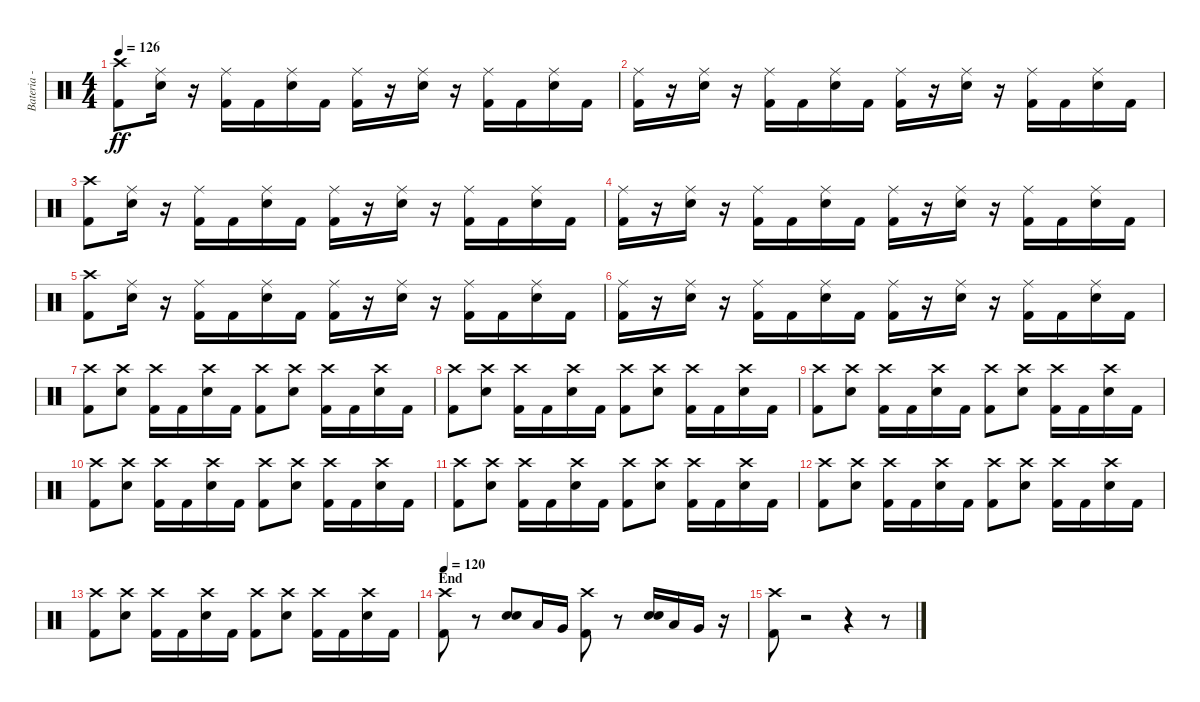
\track ("Bateria - Larzon" "Bateria - ") {instrument percussion}
\staff {score}
\articulation defaults
\ts (4 4)
\tempo 126
\clef neutral
\ks c
("Kick (hit) 2" "Crash high (hit)").8{dy ff} ("Electric Snare (hit)" "Ride (middle)").16 r.16 ("Kick (hit) 2" "Ride (middle)").16 "Kick (hit) 2".16 ("Electric Snare (hit)" "Ride (middle)").16 "Kick (hit) 2".16 ("Kick (hit) 2" "Ride (middle)").16 r.16 ("Electric Snare (hit)" "Ride (middle)").16 r.16 ("Kick (hit) 2" "Ride (middle)").16 "Kick (hit) 2".16 ("Electric Snare (hit)" "Ride (middle)").16 "Kick (hit) 2".16 |
("Kick (hit) 2" "Ride (middle)").16 r.16 ("Electric Snare (hit)" "Ride (middle)").16 r.16 ("Kick (hit) 2" "Ride (middle)").16 "Kick (hit) 2".16 ("Electric Snare (hit)" "Ride (middle)").16 "Kick (hit) 2".16 ("Kick (hit) 2" "Ride (middle)").16 r.16 ("Electric Snare (hit)" "Ride (middle)").16 r.16 ("Kick (hit) 2" "Ride (middle)").16 "Kick (hit) 2".16 ("Electric Snare (hit)" "Ride (middle)").16 "Kick (hit) 2".16 |
("Kick (hit) 2" "Crash high (hit)").8 ("Electric Snare (hit)" "Ride (middle)").16 r.16 ("Kick (hit) 2" "Ride (middle)").16 "Kick (hit) 2".16 ("Electric Snare (hit)" "Ride (middle)").16 "Kick (hit) 2".16 ("Kick (hit) 2" "Ride (middle)").16 r.16 ("Electric Snare (hit)" "Ride (middle)").16 r.16 ("Kick (hit) 2" "Ride (middle)").16 "Kick (hit) 2".16 ("Electric Snare (hit)" "Ride (middle)").16 "Kick (hit) 2".16 |
("Kick (hit) 2" "Ride (middle)").16 r.16 ("Electric Snare (hit)" "Ride (middle)").16 r.16 ("Kick (hit) 2" "Ride (middle)").16 "Kick (hit) 2".16 ("Electric Snare (hit)" "Ride (middle)").16 "Kick (hit) 2".16 ("Kick (hit) 2" "Ride (middle)").16 r.16 ("Electric Snare (hit)" "Ride (middle)").16 r.16 ("Kick (hit) 2" "Ride (middle)").16 "Kick (hit) 2".16 ("Electric Snare (hit)" "Ride (middle)").16 "Kick (hit) 2".16 |
("Kick (hit) 2" "Crash high (hit)").8 ("Electric Snare (hit)" "Ride (middle)").16 r.16 ("Kick (hit) 2" "Ride (middle)").16 "Kick (hit) 2".16 ("Electric Snare (hit)" "Ride (middle)").16 "Kick (hit) 2".16 ("Kick (hit) 2" "Ride (middle)").16 r.16 ("Electric Snare (hit)" "Ride (middle)").16 r.16 ("Kick (hit) 2" "Ride (middle)").16 "Kick (hit) 2".16 ("Electric Snare (hit)" "Ride (middle)").16 "Kick (hit) 2".16 |
("Kick (hit) 2" "Ride (middle)").16 r.16 ("Electric Snare (hit)" "Ride (middle)").16 r.16 ("Kick (hit) 2" "Ride (middle)").16 "Kick (hit) 2".16 ("Electric Snare (hit)" "Ride (middle)").16 "Kick (hit) 2".16 ("Kick (hit) 2" "Ride (middle)").16 r.16 ("Electric Snare (hit)" "Ride (middle)").16 r.16 ("Kick (hit) 2" "Ride (middle)").16 "Kick (hit) 2".16 ("Electric Snare (hit)" "Ride (middle)").16 "Kick (hit) 2".16 |
("Kick (hit) 2" "Crash high (hit)").8 ("Electric Snare (hit)" "Crash high (hit)").8 ("Kick (hit) 2" "Crash high (hit)").16 "Kick (hit) 2".16 ("Electric Snare (hit)" "Crash high (hit)").16 "Kick (hit) 2".16 ("Kick (hit) 2" "Crash high (hit)").8 ("Electric Snare (hit)" "Crash high (hit)").8 ("Kick (hit) 2" "Crash high (hit)").16 "Kick (hit) 2".16 ("Electric Snare (hit)" "Crash high (hit)").16 "Kick (hit) 2".16 |
("Kick (hit) 2" "Crash high (hit)").8 ("Electric Snare (hit)" "Crash high (hit)").8 ("Kick (hit) 2" "Crash high (hit)").16 "Kick (hit) 2".16 ("Electric Snare (hit)" "Crash high (hit)").16 "Kick (hit) 2".16 ("Kick (hit) 2" "Crash high (hit)").8 ("Electric Snare (hit)" "Crash high (hit)").8 ("Kick (hit) 2" "Crash high (hit)").16 "Kick (hit) 2".16 ("Electric Snare (hit)" "Crash high (hit)").16 "Kick (hit) 2".16 |
("Kick (hit) 2" "Crash high (hit)").8 ("Electric Snare (hit)" "Crash high (hit)").8 ("Kick (hit) 2" "Crash high (hit)").16 "Kick (hit) 2".16 ("Electric Snare (hit)" "Crash high (hit)").16 "Kick (hit) 2".16 ("Kick (hit) 2" "Crash high (hit)").8 ("Electric Snare (hit)" "Crash high (hit)").8 ("Kick (hit) 2" "Crash high (hit)").16 "Kick (hit) 2".16 ("Electric Snare (hit)" "Crash high (hit)").16 "Kick (hit) 2".16 |
("Kick (hit) 2" "Crash high (hit)").8 ("Electric Snare (hit)" "Crash high (hit)").8 ("Kick (hit) 2" "Crash high (hit)").16 "Kick (hit) 2".16 ("Electric Snare (hit)" "Crash high (hit)").16 "Kick (hit) 2".16 ("Kick (hit) 2" "Crash high (hit)").8 ("Electric Snare (hit)" "Crash high (hit)").8 ("Kick (hit) 2" "Crash high (hit)").16 "Kick (hit) 2".16 ("Electric Snare (hit)" "Crash high (hit)").16 "Kick (hit) 2".16 |
("Kick (hit) 2" "Crash high (hit)").8 ("Electric Snare (hit)" "Crash high (hit)").8 ("Kick (hit) 2" "Crash high (hit)").16 "Kick (hit) 2".16 ("Electric Snare (hit)" "Crash high (hit)").16 "Kick (hit) 2".16 ("Kick (hit) 2" "Crash high (hit)").8 ("Electric Snare (hit)" "Crash high (hit)").8 ("Kick (hit) 2" "Crash high (hit)").16 "Kick (hit) 2".16 ("Electric Snare (hit)" "Crash high (hit)").16 "Kick (hit) 2".16 |
("Kick (hit) 2" "Crash high (hit)").8 ("Electric Snare (hit)" "Crash high (hit)").8 ("Kick (hit) 2" "Crash high (hit)").16 "Kick (hit) 2".16 ("Electric Snare (hit)" "Crash high (hit)").16 "Kick (hit) 2".16 ("Kick (hit) 2" "Crash high (hit)").8 ("Electric Snare (hit)" "Crash high (hit)").8 ("Kick (hit) 2" "Crash high (hit)").16 "Kick (hit) 2".16 ("Electric Snare (hit)" "Crash high (hit)").16 "Kick (hit) 2".16 |
("Kick (hit) 2" "Crash high (hit)").8 ("Electric Snare (hit)" "Crash high (hit)").8 ("Kick (hit) 2" "Crash high (hit)").16 "Kick (hit) 2".16 ("Electric Snare (hit)" "Crash high (hit)").16 "Kick (hit) 2".16 ("Kick (hit) 2" "Crash high (hit)").8 ("Electric Snare (hit)" "Crash high (hit)").8 ("Kick (hit) 2" "Crash high (hit)").16 "Kick (hit) 2".16 ("Electric Snare (hit)" "Crash high (hit)").16 "Kick (hit) 2".16 |
\section ("" "End")
\tempo 120
("Kick (hit) 2" "Crash high (hit)").8 r.8 ("Electric Snare (hit)" "Electric Snare (hit)").8 "Low Tom (hit)".16 "Very Low Tom (hit)".16 ("Kick (hit) 2" "Crash high (hit)").8 r.8 ("Electric Snare (hit)" "Electric Snare (hit)").16 "Low Tom (hit)".16 "Very Low Tom (hit)".16 r.16 |
("Kick (hit) 2" "Crash high (hit)").8 r.2 r.4 r.8
